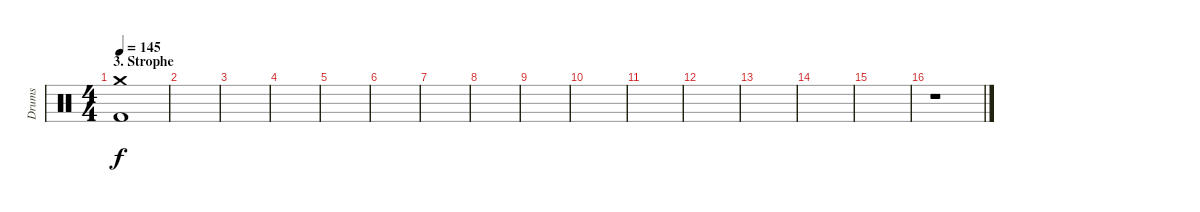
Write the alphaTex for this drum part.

\track ("Drums" "Drums") {instrument percussion}
\staff {score}
\articulation defaults
\ts (4 4)
\section ("" "3. Strophe")
\tempo 145
\clef neutral
\ks c
("Crash medium (hit)" "Kick (hit) 2").1{dy f} |
|
|
|
|
|
|
|
|
|
|
|
|
|
|
r.1{volume 0}
